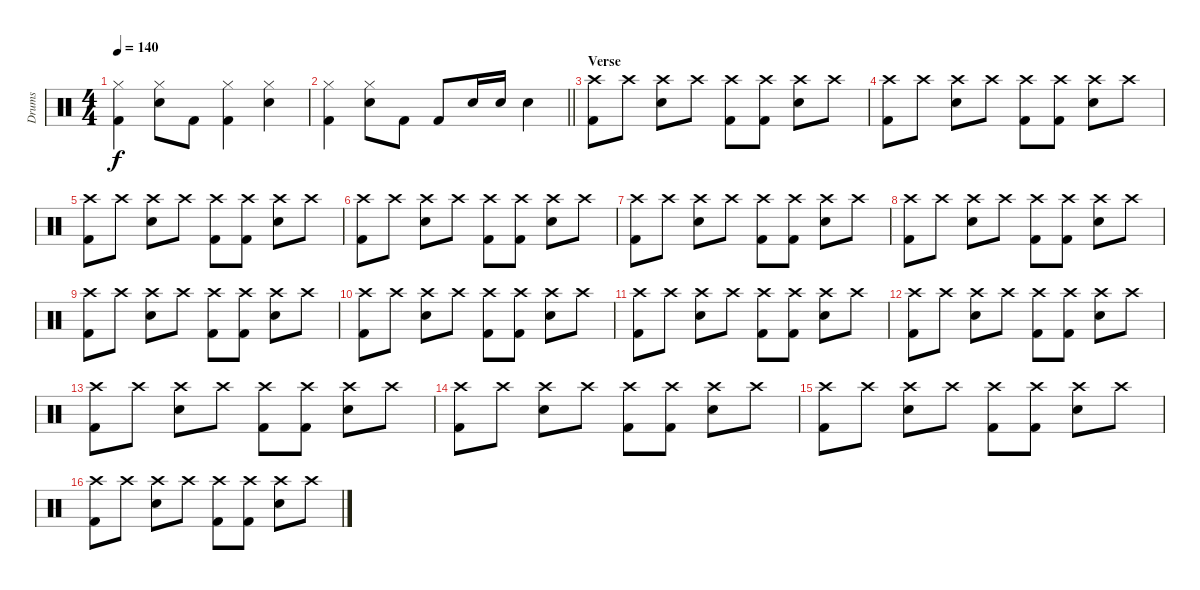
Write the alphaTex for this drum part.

\track ("Drums" "Drums") {instrument percussion}
\staff {score}
\articulation defaults
\ts (4 4)
\tempo 140
\clef neutral
\ks c
("Hi-Hat (closed)" "Kick (hit) 2").4{dy f} ("Hi-Hat (closed)" "Electric Snare (hit)").8 "Kick (hit) 2".8 ("Hi-Hat (closed)" "Kick (hit) 2").4 ("Hi-Hat (closed)" "Electric Snare (hit)").4 |
\barLineRight lightlight
("Hi-Hat (closed)" "Kick (hit) 2").4 ("Hi-Hat (closed)" "Electric Snare (hit)").8 "Kick (hit) 2".8 "Kick (hit) 2".8 "Electric Snare (hit)".16 "Electric Snare (hit)".16 "Electric Snare (hit)".4 |
\section ("" "Verse")
("Crash high (hit)" "Kick (hit) 2").8 "Crash high (hit)".8 ("Crash high (hit)" "Electric Snare (hit)").8 "Crash high (hit)".8 ("Crash high (hit)" "Kick (hit) 2").8 ("Crash high (hit)" "Kick (hit) 2").8 ("Crash high (hit)" "Electric Snare (hit)").8 "Crash high (hit)".8 |
("Crash high (hit)" "Kick (hit) 2").8 "Crash high (hit)".8 ("Crash high (hit)" "Electric Snare (hit)").8 "Crash high (hit)".8 ("Crash high (hit)" "Kick (hit) 2").8 ("Crash high (hit)" "Kick (hit) 2").8 ("Crash high (hit)" "Electric Snare (hit)").8 "Crash high (hit)".8 |
("Crash high (hit)" "Kick (hit) 2").8 "Crash high (hit)".8 ("Crash high (hit)" "Electric Snare (hit)").8 "Crash high (hit)".8 ("Crash high (hit)" "Kick (hit) 2").8 ("Crash high (hit)" "Kick (hit) 2").8 ("Crash high (hit)" "Electric Snare (hit)").8 "Crash high (hit)".8 |
("Crash high (hit)" "Kick (hit) 2").8 "Crash high (hit)".8 ("Crash high (hit)" "Electric Snare (hit)").8 "Crash high (hit)".8 ("Crash high (hit)" "Kick (hit) 2").8 ("Crash high (hit)" "Kick (hit) 2").8 ("Crash high (hit)" "Electric Snare (hit)").8 "Crash high (hit)".8 |
("Crash high (hit)" "Kick (hit) 2").8 "Crash high (hit)".8 ("Crash high (hit)" "Electric Snare (hit)").8 "Crash high (hit)".8 ("Crash high (hit)" "Kick (hit) 2").8 ("Crash high (hit)" "Kick (hit) 2").8 ("Crash high (hit)" "Electric Snare (hit)").8 "Crash high (hit)".8 |
("Crash high (hit)" "Kick (hit) 2").8 "Crash high (hit)".8 ("Crash high (hit)" "Electric Snare (hit)").8 "Crash high (hit)".8 ("Crash high (hit)" "Kick (hit) 2").8 ("Crash high (hit)" "Kick (hit) 2").8 ("Crash high (hit)" "Electric Snare (hit)").8 "Crash high (hit)".8 |
("Crash high (hit)" "Kick (hit) 2").8 "Crash high (hit)".8 ("Crash high (hit)" "Electric Snare (hit)").8 "Crash high (hit)".8 ("Crash high (hit)" "Kick (hit) 2").8 ("Crash high (hit)" "Kick (hit) 2").8 ("Crash high (hit)" "Electric Snare (hit)").8 "Crash high (hit)".8 |
("Crash high (hit)" "Kick (hit) 2").8 "Crash high (hit)".8 ("Crash high (hit)" "Electric Snare (hit)").8 "Crash high (hit)".8 ("Crash high (hit)" "Kick (hit) 2").8 ("Crash high (hit)" "Kick (hit) 2").8 ("Crash high (hit)" "Electric Snare (hit)").8 "Crash high (hit)".8 |
("Crash high (hit)" "Kick (hit) 2").8 "Crash high (hit)".8 ("Crash high (hit)" "Electric Snare (hit)").8 "Crash high (hit)".8 ("Crash high (hit)" "Kick (hit) 2").8 ("Crash high (hit)" "Kick (hit) 2").8 ("Crash high (hit)" "Electric Snare (hit)").8 "Crash high (hit)".8 |
("Crash high (hit)" "Kick (hit) 2").8 "Crash high (hit)".8 ("Crash high (hit)" "Electric Snare (hit)").8 "Crash high (hit)".8 ("Crash high (hit)" "Kick (hit) 2").8 ("Crash high (hit)" "Kick (hit) 2").8 ("Crash high (hit)" "Electric Snare (hit)").8 "Crash high (hit)".8 |
("Crash high (hit)" "Kick (hit) 2").8 "Crash high (hit)".8 ("Crash high (hit)" "Electric Snare (hit)").8 "Crash high (hit)".8 ("Crash high (hit)" "Kick (hit) 2").8 ("Crash high (hit)" "Kick (hit) 2").8 ("Crash high (hit)" "Electric Snare (hit)").8 "Crash high (hit)".8 |
("Crash high (hit)" "Kick (hit) 2").8 "Crash high (hit)".8 ("Crash high (hit)" "Electric Snare (hit)").8 "Crash high (hit)".8 ("Crash high (hit)" "Kick (hit) 2").8 ("Crash high (hit)" "Kick (hit) 2").8 ("Crash high (hit)" "Electric Snare (hit)").8 "Crash high (hit)".8 |
("Crash high (hit)" "Kick (hit) 2").8 "Crash high (hit)".8 ("Crash high (hit)" "Electric Snare (hit)").8 "Crash high (hit)".8 ("Crash high (hit)" "Kick (hit) 2").8 ("Crash high (hit)" "Kick (hit) 2").8 ("Crash high (hit)" "Electric Snare (hit)").8 "Crash high (hit)".8 |
("Crash high (hit)" "Kick (hit) 2").8 "Crash high (hit)".8 ("Crash high (hit)" "Electric Snare (hit)").8 "Crash high (hit)".8 ("Crash high (hit)" "Kick (hit) 2").8 ("Crash high (hit)" "Kick (hit) 2").8 ("Crash high (hit)" "Electric Snare (hit)").8 "Crash high (hit)".8
